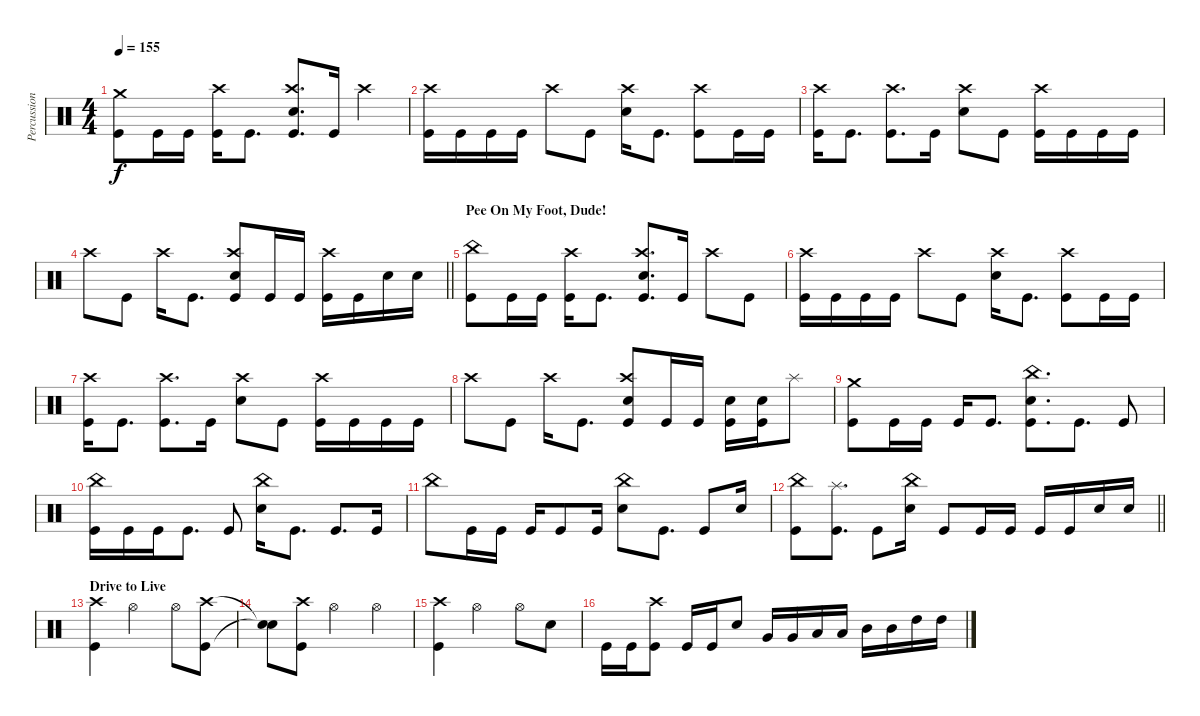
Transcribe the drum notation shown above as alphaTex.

\track ("Percussion" "Percussion") {instrument percussion}
\staff {score}
\articulation defaults
\ts (4 4)
\tempo 155
\clef neutral
\ks c
("Crash medium (hit)" "Kick (hit)").8{dy f} "Kick (hit)".16 "Kick (hit)".16 ("Crash high (hit)" "Kick (hit)").16 "Kick (hit)".8{d} ("Crash high (hit)" "Electric Snare (hit)" "Kick (hit)").8{d} "Kick (hit)".16 "Crash high (hit)".4 |
("Crash high (hit)" "Kick (hit)").16 "Kick (hit)".16 "Kick (hit)".16 "Kick (hit)".16 "Crash high (hit)".8 "Kick (hit)".8 ("Crash high (hit)" "Electric Snare (hit)").16 "Kick (hit)".8{d} ("Crash high (hit)" "Kick (hit)").8 "Kick (hit)".16 "Kick (hit)".16 |
("Crash high (hit)" "Kick (hit)").16 "Kick (hit)".8{d} ("Crash high (hit)" "Kick (hit)").8{d} "Kick (hit)".16 ("Crash high (hit)" "Electric Snare (hit)").8 "Kick (hit)".8 ("Crash high (hit)" "Kick (hit)").16 "Kick (hit)".16 "Kick (hit)".16 "Kick (hit)".16 |
\barLineRight lightlight "Crash high (hit)".8 "Kick (hit)".8 "Crash high (hit)".16 "Kick (hit)".8{d}
("Crash high (hit)" "Electric Snare (hit)" "Kick (hit)").8 "Kick (hit)".16 "Kick (hit)".16 ("Crash high (hit)" "Kick (hit)").16 "Kick (hit)".16 "Electric Snare (hit)".16 "Electric Snare (hit)".16 |
\section ("" "Pee On My Foot, Dude!")
("China (hit)" "Kick (hit)").8 "Kick (hit)".16 "Kick (hit)".16 ("Crash high (hit)" "Kick (hit)").16 "Kick (hit)".8{d} ("Crash high (hit)" "Electric Snare (hit)" "Kick (hit)").8{d} "Kick (hit)".16 "Crash high (hit)".8 "Kick (hit)".8 |
("Crash high (hit)" "Kick (hit)").16 "Kick (hit)".16 "Kick (hit)".16 "Kick (hit)".16 "Crash high (hit)".8 "Kick (hit)".8 ("Crash high (hit)" "Electric Snare (hit)").16 "Kick (hit)".8{d} ("Crash high (hit)" "Kick (hit)").8 "Kick (hit)".16 "Kick (hit)".16 |
("Crash high (hit)" "Kick (hit)").16 "Kick (hit)".8{d} ("Crash high (hit)" "Kick (hit)").8{d} "Kick (hit)".16 ("Crash high (hit)" "Electric Snare (hit)").8 "Kick (hit)".8 ("Crash high (hit)" "Kick (hit)").16 "Kick (hit)".16 "Kick (hit)".16 "Kick (hit)".16 |
"Crash high (hit)".8 "Kick (hit)".8 "Crash high (hit)".16 "Kick (hit)".8{d} ("Crash high (hit)" "Electric Snare (hit)" "Kick (hit)").8 "Kick (hit)".16 "Kick (hit)".16 ("Electric Snare (hit)" "Kick (hit)").16 ("Electric Snare (hit)" "Kick (hit)").16 "Splash (hit)".8 |
("Crash medium (hit)" "Kick (hit)").8 "Kick (hit)".16 "Kick (hit)".16 "Kick (hit)".16 "Kick (hit)".8{d} ("China (hit)" "Electric Snare (hit)" "Kick (hit)").8{d} "Kick (hit)".8{d} "Kick (hit)".8 |
("China (hit)" "Kick (hit)").16 "Kick (hit)".16 "Kick (hit)".16 "Kick (hit)".8{d} "Kick (hit)".8 ("China (hit)" "Electric Snare (hit)").16 "Kick (hit)".8{d} "Kick (hit)".8{d} "Kick (hit)".16 |
"China (hit)".8 "Kick (hit)".16 "Kick (hit)".16 "Kick (hit)".16 "Kick (hit)".8 "Kick (hit)".16 ("China (hit)" "Electric Snare (hit)").8 "Kick (hit)".8{d} "Kick (hit)".8 "Electric Snare (hit)".16 |
\barLineRight lightlight
("China (hit)" "Kick (hit)").8 ("Splash (hit)" "Kick (hit)").8{d} "Kick (hit)".8 ("China (hit)" "Electric Snare (hit)").16 "Kick (hit)".8 "Kick (hit)".16 "Kick (hit)".16 "Kick (hit)".16 "Kick (hit)".16 "Electric Snare (hit)".16 "Electric Snare (hit)".16 |
\section ("" "Drive to Live")
("Crash high (hit)" "Kick (hit)").4 "Hi-Hat (open)".2 "Hi-Hat (open)".8 ("Crash high (hit)" "Kick (hit)").8 |
("Snare (hit)"{t} "Snare (hit)"{t}).8 ("Crash high (hit)" "Kick (hit)").8 "Hi-Hat (open)".2 "Hi-Hat (open)".4 |
("Crash high (hit)" "Kick (hit)").4 "Hi-Hat (open)".2 "Hi-Hat (open)".8 "Electric Snare (hit)".8 |
"Kick (hit)".16 "Kick (hit)".16 ("Crash high (hit)" "Kick (hit)").8 "Kick (hit)".16 "Kick (hit)".16 "Electric Snare (hit)".8 "Very Low Tom (hit)".16 "Very Low Tom (hit)".16 "Low Tom (hit)".16 "Low Tom (hit)".16 "Mid Tom (hit)".16 "Mid Tom (hit)".16 "High Tom (hit)".16 "High Tom (hit)".16
